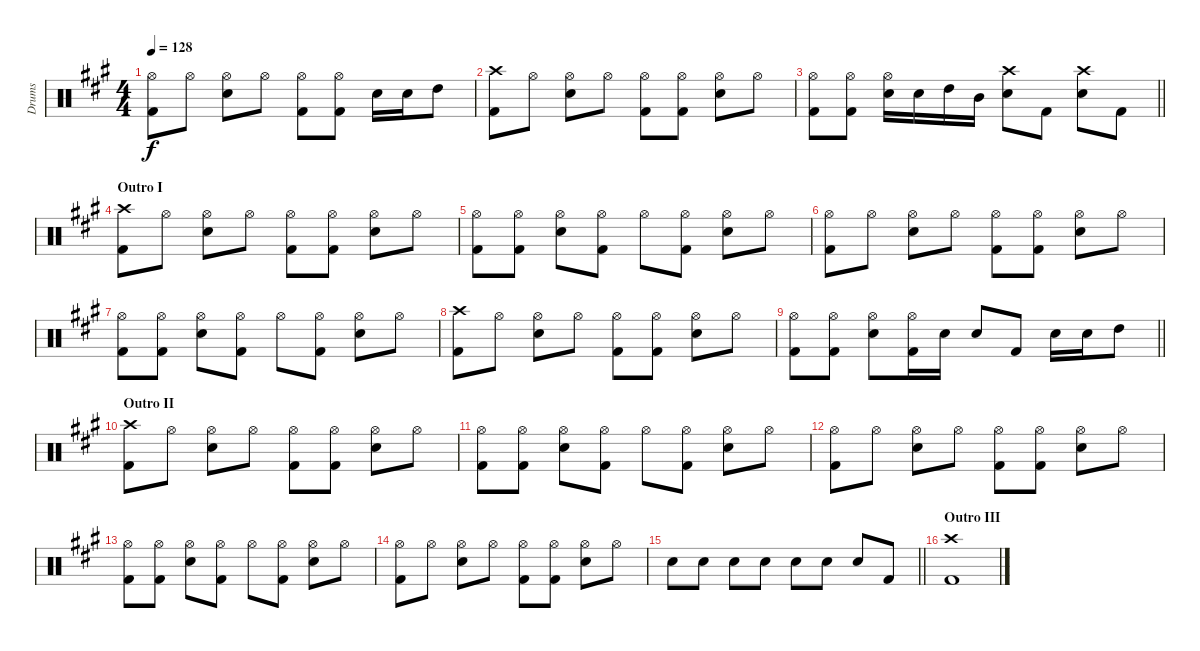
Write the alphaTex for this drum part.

\track ("Drums" "Drums") {instrument percussion}
\staff {score}
\articulation defaults
\ts (4 4)
\tempo 128
\clef neutral
\ks a
("Hi-Hat (open)" "Kick (hit) 2").8{dy f} "Hi-Hat (open)".8 ("Hi-Hat (open)" "Snare (hit) 2").8 "Hi-Hat (open)".8 ("Hi-Hat (open)" "Kick (hit) 2").8 ("Hi-Hat (open)" "Kick (hit) 2").8 "Snare (hit) 2".16 "Snare (hit) 2".16 "High Tom (hit)".8 |
("Crash high (hit)" "Kick (hit) 2").8 "Hi-Hat (open)".8 ("Hi-Hat (open)" "Snare (hit) 2").8 "Hi-Hat (open)".8 ("Hi-Hat (open)" "Kick (hit) 2").8 ("Hi-Hat (open)" "Kick (hit) 2").8 ("Hi-Hat (open)" "Snare (hit) 2").8 "Hi-Hat (open)".8 |
\barLineRight lightlight
("Hi-Hat (open)" "Kick (hit) 2").8 ("Hi-Hat (open)" "Kick (hit) 2").8 ("Hi-Hat (open)" "Snare (hit) 2").16 "Snare (hit) 2".16 "High Tom (hit)".16 "Mid Tom (hit)".16 ("Crash high (hit)" "Snare (hit) 2").8 "Kick (hit) 2".8 ("Crash high (hit)" "Snare (hit) 2").8 "Kick (hit) 2".8 |
\section ("" "Outro I")
("Crash high (hit)" "Kick (hit) 2").8 "Hi-Hat (open)".8 ("Hi-Hat (open)" "Snare (hit) 2").8 "Hi-Hat (open)".8 ("Hi-Hat (open)" "Kick (hit) 2").8 ("Hi-Hat (open)" "Kick (hit) 2").8 ("Hi-Hat (open)" "Snare (hit) 2").8 "Hi-Hat (open)".8 |
("Hi-Hat (open)" "Kick (hit) 2").8 ("Hi-Hat (open)" "Kick (hit) 2").8 ("Hi-Hat (open)" "Snare (hit) 2").8 ("Hi-Hat (open)" "Kick (hit) 2").8 "Hi-Hat (open)".8 ("Hi-Hat (open)" "Kick (hit) 2").8 ("Hi-Hat (open)" "Snare (hit) 2").8 "Hi-Hat (open)".8 |
("Hi-Hat (open)" "Kick (hit) 2").8 "Hi-Hat (open)".8 ("Hi-Hat (open)" "Snare (hit) 2").8 "Hi-Hat (open)".8 ("Hi-Hat (open)" "Kick (hit) 2").8 ("Hi-Hat (open)" "Kick (hit) 2").8 ("Hi-Hat (open)" "Snare (hit) 2").8 "Hi-Hat (open)".8 |
("Hi-Hat (open)" "Kick (hit) 2").8 ("Hi-Hat (open)" "Kick (hit) 2").8 ("Hi-Hat (open)" "Snare (hit) 2").8 ("Hi-Hat (open)" "Kick (hit) 2").8 "Hi-Hat (open)".8 ("Hi-Hat (open)" "Kick (hit) 2").8 ("Hi-Hat (open)" "Snare (hit) 2").8 "Hi-Hat (open)".8 |
("Crash high (hit)" "Kick (hit) 2").8 "Hi-Hat (open)".8 ("Hi-Hat (open)" "Snare (hit) 2").8 "Hi-Hat (open)".8 ("Hi-Hat (open)" "Kick (hit) 2").8 ("Hi-Hat (open)" "Kick (hit) 2").8 ("Hi-Hat (open)" "Snare (hit) 2").8 "Hi-Hat (open)".8 |
\barLineRight lightlight
("Hi-Hat (open)" "Kick (hit) 2").8 ("Hi-Hat (open)" "Kick (hit) 2").8 ("Hi-Hat (open)" "Snare (hit) 2").8 ("Hi-Hat (open)" "Kick (hit) 2").16 "Snare (hit) 2".16 "Snare (hit) 2".8 "Kick (hit) 2".8 "Snare (hit) 2".16 "Snare (hit) 2".16 "High Tom (hit)".8 |
\section ("" "Outro II")
("Crash high (hit)" "Kick (hit) 2").8 "Hi-Hat (open)".8 ("Hi-Hat (open)" "Snare (hit) 2").8 "Hi-Hat (open)".8 ("Hi-Hat (open)" "Kick (hit) 2").8 ("Hi-Hat (open)" "Kick (hit) 2").8 ("Hi-Hat (open)" "Snare (hit) 2").8 "Hi-Hat (open)".8 |
("Hi-Hat (open)" "Kick (hit) 2").8 ("Hi-Hat (open)" "Kick (hit) 2").8 ("Hi-Hat (open)" "Snare (hit) 2").8 ("Hi-Hat (open)" "Kick (hit) 2").8 "Hi-Hat (open)".8 ("Hi-Hat (open)" "Kick (hit) 2").8 ("Hi-Hat (open)" "Snare (hit) 2").8 "Hi-Hat (open)".8 |
("Hi-Hat (open)" "Kick (hit) 2").8 "Hi-Hat (open)".8 ("Hi-Hat (open)" "Snare (hit) 2").8 "Hi-Hat (open)".8 ("Hi-Hat (open)" "Kick (hit) 2").8 ("Hi-Hat (open)" "Kick (hit) 2").8 ("Hi-Hat (open)" "Snare (hit) 2").8 "Hi-Hat (open)".8 |
("Hi-Hat (open)" "Kick (hit) 2").8 ("Hi-Hat (open)" "Kick (hit) 2").8 ("Hi-Hat (open)" "Snare (hit) 2").8 ("Hi-Hat (open)" "Kick (hit) 2").8 "Hi-Hat (open)".8 ("Hi-Hat (open)" "Kick (hit) 2").8 ("Hi-Hat (open)" "Snare (hit) 2").8 "Hi-Hat (open)".8 |
("Hi-Hat (open)" "Kick (hit) 2").8 "Hi-Hat (open)".8 ("Hi-Hat (open)" "Snare (hit) 2").8 "Hi-Hat (open)".8 ("Hi-Hat (open)" "Kick (hit) 2").8 ("Hi-Hat (open)" "Kick (hit) 2").8 ("Hi-Hat (open)" "Snare (hit) 2").8 "Hi-Hat (open)".8 |
\barLineRight lightlight "Snare (hit) 2".8 "Snare (hit) 2".8 "Snare (hit) 2".8 "Snare (hit) 2".8 "Snare (hit) 2".8 "Snare (hit) 2".8 "Snare (hit) 2".8 "Kick (hit) 2".8
|
\section ("" "Outro III")
("Crash high (hit)" "Kick (hit) 2").1
